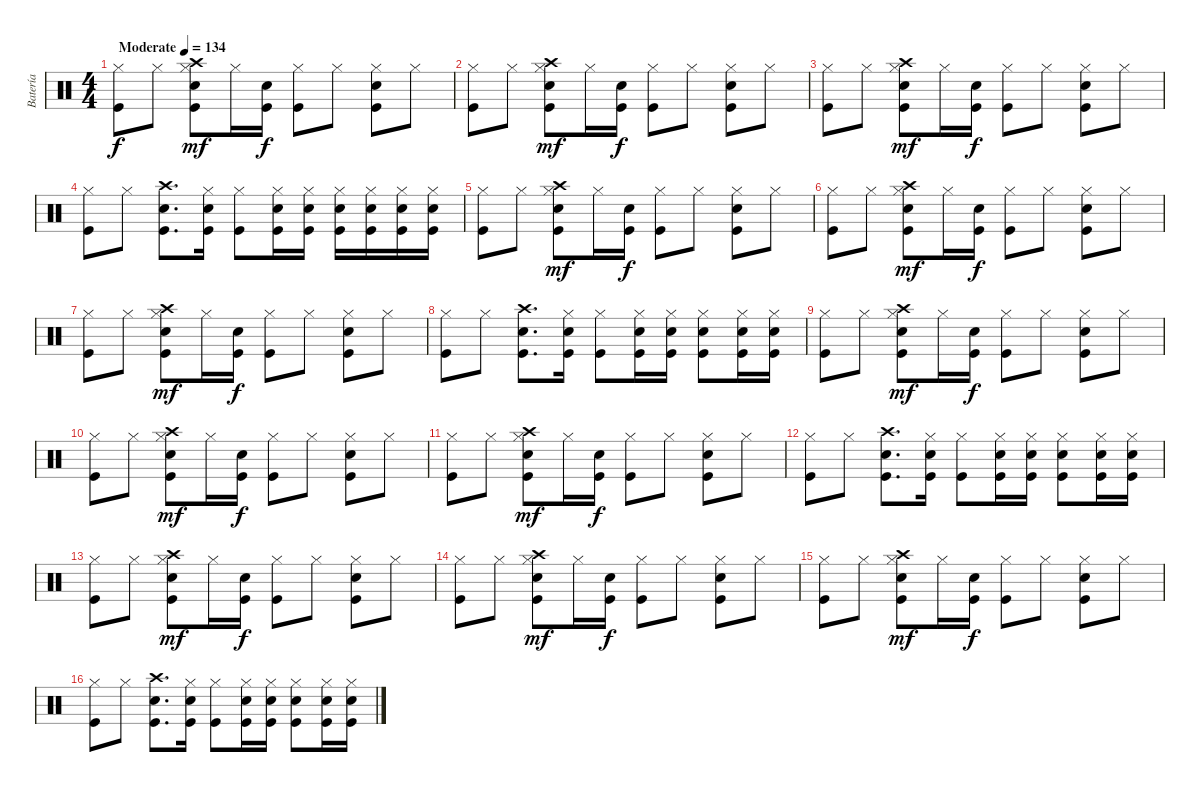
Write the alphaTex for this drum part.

\track ("Batería" "Batería") {instrument percussion}
\staff {score}
\articulation defaults
\ts (4 4)
\tempo (134 "Moderate")
\clef neutral
\ks c
("Hi-Hat (closed)" "Kick (hit)").8{dy f} "Hi-Hat (closed)".8 ("Snare (hit) 2" "Crash high (hit)" "Kick (hit)" "Hi-Hat (closed)").8{dy mf} "Hi-Hat (closed)".16 ("Snare (hit) 2" "Kick (hit)").16{dy f} ("Hi-Hat (closed)" "Kick (hit)").8 "Hi-Hat (closed)".8 ("Hi-Hat (closed)" "Snare (hit) 2" "Kick (hit)").8 "Hi-Hat (closed)".8 |
("Hi-Hat (closed)" "Kick (hit)").8 "Hi-Hat (closed)".8 ("Snare (hit) 2" "Crash high (hit)" "Kick (hit)" "Hi-Hat (closed)").8{dy mf} "Hi-Hat (closed)".16 ("Snare (hit) 2" "Kick (hit)").16{dy f} ("Hi-Hat (closed)" "Kick (hit)").8 "Hi-Hat (closed)".8 ("Hi-Hat (closed)" "Snare (hit) 2" "Kick (hit)").8 "Hi-Hat (closed)".8 |
("Hi-Hat (closed)" "Kick (hit)").8 "Hi-Hat (closed)".8 ("Snare (hit) 2" "Crash high (hit)" "Kick (hit)" "Hi-Hat (closed)").8{dy mf} "Hi-Hat (closed)".16 ("Snare (hit) 2" "Kick (hit)").16{dy f} ("Hi-Hat (closed)" "Kick (hit)").8 "Hi-Hat (closed)".8 ("Hi-Hat (closed)" "Snare (hit) 2" "Kick (hit)").8 "Hi-Hat (closed)".8 |
("Hi-Hat (closed)" "Kick (hit)").8 "Hi-Hat (closed)".8 ("Snare (hit) 2" "Crash high (hit)" "Kick (hit)").8{d} ("Hi-Hat (closed)" "Snare (hit) 2" "Kick (hit)").16 ("Hi-Hat (closed)" "Kick (hit)").8 ("Hi-Hat (closed)" "Snare (hit) 2" "Kick (hit)").16 ("Hi-Hat (closed)" "Snare (hit) 2" "Kick (hit)").16 ("Hi-Hat (closed)" "Snare (hit) 2" "Kick (hit)").16 ("Hi-Hat (closed)" "Snare (hit) 2" "Kick (hit)").16 ("Hi-Hat (closed)" "Snare (hit) 2" "Kick (hit)").16 ("Hi-Hat (closed)" "Snare (hit) 2" "Kick (hit)").16 |
("Hi-Hat (closed)" "Kick (hit)").8 "Hi-Hat (closed)".8 ("Snare (hit) 2" "Crash high (hit)" "Kick (hit)" "Hi-Hat (closed)").8{dy mf} "Hi-Hat (closed)".16 ("Snare (hit) 2" "Kick (hit)").16{dy f} ("Hi-Hat (closed)" "Kick (hit)").8 "Hi-Hat (closed)".8 ("Hi-Hat (closed)" "Snare (hit) 2" "Kick (hit)").8 "Hi-Hat (closed)".8 |
("Hi-Hat (closed)" "Kick (hit)").8 "Hi-Hat (closed)".8 ("Snare (hit) 2" "Crash high (hit)" "Kick (hit)" "Hi-Hat (closed)").8{dy mf} "Hi-Hat (closed)".16 ("Snare (hit) 2" "Kick (hit)").16{dy f} ("Hi-Hat (closed)" "Kick (hit)").8 "Hi-Hat (closed)".8 ("Hi-Hat (closed)" "Snare (hit) 2" "Kick (hit)").8 "Hi-Hat (closed)".8 |
("Hi-Hat (closed)" "Kick (hit)").8 "Hi-Hat (closed)".8 ("Snare (hit) 2" "Crash high (hit)" "Kick (hit)" "Hi-Hat (closed)").8{dy mf} "Hi-Hat (closed)".16 ("Snare (hit) 2" "Kick (hit)").16{dy f} ("Hi-Hat (closed)" "Kick (hit)").8 "Hi-Hat (closed)".8 ("Hi-Hat (closed)" "Snare (hit) 2" "Kick (hit)").8 "Hi-Hat (closed)".8 |
("Hi-Hat (closed)" "Kick (hit)").8 "Hi-Hat (closed)".8 ("Snare (hit) 2" "Crash high (hit)" "Kick (hit)").8{d} ("Hi-Hat (closed)" "Snare (hit) 2" "Kick (hit)").16 ("Hi-Hat (closed)" "Kick (hit)").8 ("Hi-Hat (closed)" "Snare (hit) 2" "Kick (hit)").16 ("Hi-Hat (closed)" "Snare (hit) 2" "Kick (hit)").16 ("Hi-Hat (closed)" "Snare (hit) 2" "Kick (hit)").8 ("Hi-Hat (closed)" "Snare (hit) 2" "Kick (hit)").16 ("Hi-Hat (closed)" "Snare (hit) 2" "Kick (hit)").16 |
("Hi-Hat (closed)" "Kick (hit)").8 "Hi-Hat (closed)".8 ("Snare (hit) 2" "Crash high (hit)" "Kick (hit)" "Hi-Hat (closed)").8{dy mf} "Hi-Hat (closed)".16 ("Snare (hit) 2" "Kick (hit)").16{dy f} ("Hi-Hat (closed)" "Kick (hit)").8 "Hi-Hat (closed)".8 ("Hi-Hat (closed)" "Snare (hit) 2" "Kick (hit)").8 "Hi-Hat (closed)".8 |
("Hi-Hat (closed)" "Kick (hit)").8 "Hi-Hat (closed)".8 ("Snare (hit) 2" "Crash high (hit)" "Kick (hit)" "Hi-Hat (closed)").8{dy mf} "Hi-Hat (closed)".16 ("Snare (hit) 2" "Kick (hit)").16{dy f} ("Hi-Hat (closed)" "Kick (hit)").8 "Hi-Hat (closed)".8 ("Hi-Hat (closed)" "Snare (hit) 2" "Kick (hit)").8 "Hi-Hat (closed)".8 |
("Hi-Hat (closed)" "Kick (hit)").8 "Hi-Hat (closed)".8 ("Snare (hit) 2" "Crash high (hit)" "Kick (hit)" "Hi-Hat (closed)").8{dy mf} "Hi-Hat (closed)".16 ("Snare (hit) 2" "Kick (hit)").16{dy f} ("Hi-Hat (closed)" "Kick (hit)").8 "Hi-Hat (closed)".8 ("Hi-Hat (closed)" "Snare (hit) 2" "Kick (hit)").8 "Hi-Hat (closed)".8 |
("Hi-Hat (closed)" "Kick (hit)").8 "Hi-Hat (closed)".8 ("Snare (hit) 2" "Crash high (hit)" "Kick (hit)").8{d} ("Hi-Hat (closed)" "Snare (hit) 2" "Kick (hit)").16 ("Hi-Hat (closed)" "Kick (hit)").8 ("Hi-Hat (closed)" "Snare (hit) 2" "Kick (hit)").16 ("Hi-Hat (closed)" "Snare (hit) 2" "Kick (hit)").16 ("Hi-Hat (closed)" "Snare (hit) 2" "Kick (hit)").8 ("Hi-Hat (closed)" "Snare (hit) 2" "Kick (hit)").16 ("Hi-Hat (closed)" "Snare (hit) 2" "Kick (hit)").16 |
("Hi-Hat (closed)" "Kick (hit)").8 "Hi-Hat (closed)".8 ("Snare (hit) 2" "Crash high (hit)" "Kick (hit)" "Hi-Hat (closed)").8{dy mf} "Hi-Hat (closed)".16 ("Snare (hit) 2" "Kick (hit)").16{dy f} ("Hi-Hat (closed)" "Kick (hit)").8 "Hi-Hat (closed)".8 ("Hi-Hat (closed)" "Snare (hit) 2" "Kick (hit)").8 "Hi-Hat (closed)".8 |
("Hi-Hat (closed)" "Kick (hit)").8 "Hi-Hat (closed)".8 ("Snare (hit) 2" "Crash high (hit)" "Kick (hit)" "Hi-Hat (closed)").8{dy mf} "Hi-Hat (closed)".16 ("Snare (hit) 2" "Kick (hit)").16{dy f} ("Hi-Hat (closed)" "Kick (hit)").8 "Hi-Hat (closed)".8 ("Hi-Hat (closed)" "Snare (hit) 2" "Kick (hit)").8 "Hi-Hat (closed)".8 |
("Hi-Hat (closed)" "Kick (hit)").8 "Hi-Hat (closed)".8 ("Snare (hit) 2" "Crash high (hit)" "Kick (hit)" "Hi-Hat (closed)").8{dy mf} "Hi-Hat (closed)".16 ("Snare (hit) 2" "Kick (hit)").16{dy f} ("Hi-Hat (closed)" "Kick (hit)").8 "Hi-Hat (closed)".8 ("Hi-Hat (closed)" "Snare (hit) 2" "Kick (hit)").8 "Hi-Hat (closed)".8 |
("Hi-Hat (closed)" "Kick (hit)").8 "Hi-Hat (closed)".8 ("Snare (hit) 2" "Crash high (hit)" "Kick (hit)").8{d} ("Hi-Hat (closed)" "Snare (hit) 2" "Kick (hit)").16 ("Hi-Hat (closed)" "Kick (hit)").8 ("Hi-Hat (closed)" "Snare (hit) 2" "Kick (hit)").16 ("Hi-Hat (closed)" "Snare (hit) 2" "Kick (hit)").16 ("Hi-Hat (closed)" "Snare (hit) 2" "Kick (hit)").8 ("Hi-Hat (closed)" "Snare (hit) 2" "Kick (hit)").16 ("Hi-Hat (closed)" "Snare (hit) 2" "Kick (hit)").16
